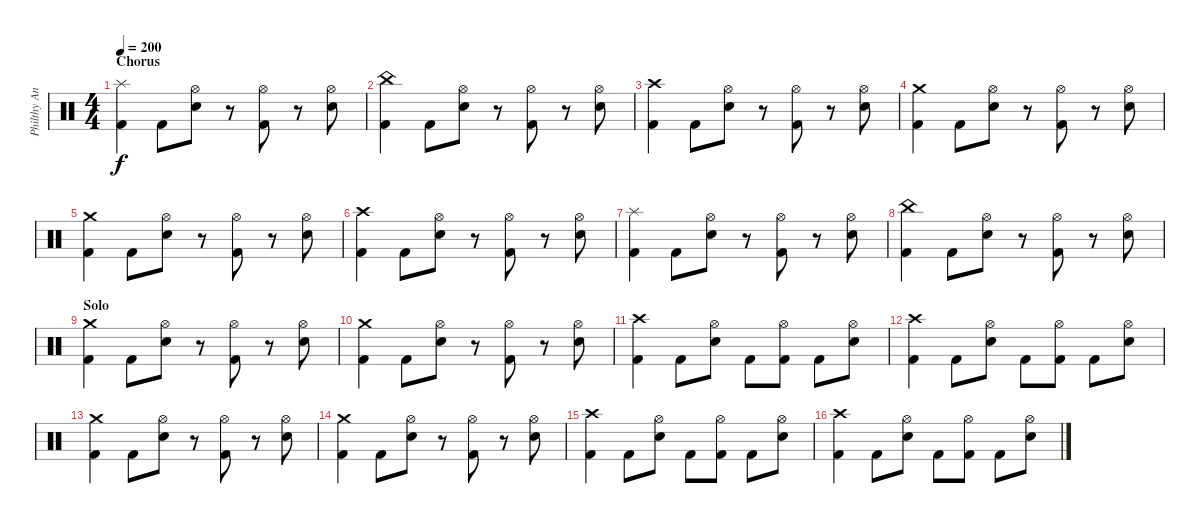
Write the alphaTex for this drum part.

\track ("Philthy Animal Taylor" "Philthy An") {instrument percussion}
\staff {score}
\articulation defaults
\ts (4 4)
\section ("" "Chorus")
\tempo 200
\clef neutral
\ks c
("Splash (hit)" "Kick (hit) 2").4{dy f} "Kick (hit) 2".8 ("Hi-Hat (open)" "Snare (hit) 2").8 r.8 ("Hi-Hat (open)" "Kick (hit) 2").8 r.8 ("Hi-Hat (open)" "Snare (hit) 2").8 |
("China (hit)" "Kick (hit) 2").4 "Kick (hit) 2".8 ("Hi-Hat (open)" "Snare (hit) 2").8 r.8 ("Hi-Hat (open)" "Kick (hit) 2").8 r.8 ("Hi-Hat (open)" "Snare (hit) 2").8 |
("Crash high (hit)" "Kick (hit) 2").4 "Kick (hit) 2".8 ("Hi-Hat (open)" "Snare (hit) 2").8 r.8 ("Hi-Hat (open)" "Kick (hit) 2").8 r.8 ("Hi-Hat (open)" "Snare (hit) 2").8 |
("Crash medium (hit)" "Kick (hit) 2").4 "Kick (hit) 2".8 ("Hi-Hat (open)" "Snare (hit) 2").8 r.8 ("Hi-Hat (open)" "Kick (hit) 2").8 r.8 ("Hi-Hat (open)" "Snare (hit) 2").8 |
("Crash medium (hit)" "Kick (hit) 2").4 "Kick (hit) 2".8 ("Hi-Hat (open)" "Snare (hit) 2").8 r.8 ("Hi-Hat (open)" "Kick (hit) 2").8 r.8 ("Hi-Hat (open)" "Snare (hit) 2").8 |
("Crash high (hit)" "Kick (hit) 2").4 "Kick (hit) 2".8 ("Hi-Hat (open)" "Snare (hit) 2").8 r.8 ("Hi-Hat (open)" "Kick (hit) 2").8 r.8 ("Hi-Hat (open)" "Snare (hit) 2").8 |
("Splash (hit)" "Kick (hit) 2").4 "Kick (hit) 2".8 ("Hi-Hat (open)" "Snare (hit) 2").8 r.8 ("Hi-Hat (open)" "Kick (hit) 2").8 r.8 ("Hi-Hat (open)" "Snare (hit) 2").8 |
("China (hit)" "Kick (hit) 2").4 "Kick (hit) 2".8 ("Hi-Hat (open)" "Snare (hit) 2").8 r.8 ("Hi-Hat (open)" "Kick (hit) 2").8 r.8 ("Hi-Hat (open)" "Snare (hit) 2").8 |
\section ("" "Solo")
("Crash medium (hit)" "Kick (hit) 2").4 "Kick (hit) 2".8 ("Hi-Hat (open)" "Snare (hit) 2").8 r.8 ("Hi-Hat (open)" "Kick (hit) 2").8 r.8 ("Hi-Hat (open)" "Snare (hit) 2").8 |
("Crash medium (hit)" "Kick (hit) 2").4 "Kick (hit) 2".8 ("Hi-Hat (open)" "Snare (hit) 2").8 r.8 ("Hi-Hat (open)" "Kick (hit) 2").8 r.8 ("Hi-Hat (open)" "Snare (hit) 2").8 |
("Crash high (hit)" "Kick (hit) 2").4 "Kick (hit) 2".8 ("Hi-Hat (open)" "Snare (hit) 2").8 "Kick (hit) 2".8 ("Hi-Hat (open)" "Kick (hit) 2").8 "Kick (hit) 2".8 ("Hi-Hat (open)" "Snare (hit) 2").8 |
("Crash high (hit)" "Kick (hit) 2").4 "Kick (hit) 2".8 ("Hi-Hat (open)" "Snare (hit) 2").8 "Kick (hit) 2".8 ("Hi-Hat (open)" "Kick (hit) 2").8 "Kick (hit) 2".8 ("Hi-Hat (open)" "Snare (hit) 2").8 |
("Crash medium (hit)" "Kick (hit) 2").4 "Kick (hit) 2".8 ("Hi-Hat (open)" "Snare (hit) 2").8 r.8 ("Hi-Hat (open)" "Kick (hit) 2").8 r.8 ("Hi-Hat (open)" "Snare (hit) 2").8 |
("Crash medium (hit)" "Kick (hit) 2").4 "Kick (hit) 2".8 ("Hi-Hat (open)" "Snare (hit) 2").8 r.8 ("Hi-Hat (open)" "Kick (hit) 2").8 r.8 ("Hi-Hat (open)" "Snare (hit) 2").8 |
("Crash high (hit)" "Kick (hit) 2").4 "Kick (hit) 2".8 ("Hi-Hat (open)" "Snare (hit) 2").8 "Kick (hit) 2".8 ("Hi-Hat (open)" "Kick (hit) 2").8 "Kick (hit) 2".8 ("Hi-Hat (open)" "Snare (hit) 2").8 |
("Crash high (hit)" "Kick (hit) 2").4 "Kick (hit) 2".8 ("Hi-Hat (open)" "Snare (hit) 2").8 "Kick (hit) 2".8 ("Hi-Hat (open)" "Kick (hit) 2").8 "Kick (hit) 2".8 ("Hi-Hat (open)" "Snare (hit) 2").8
